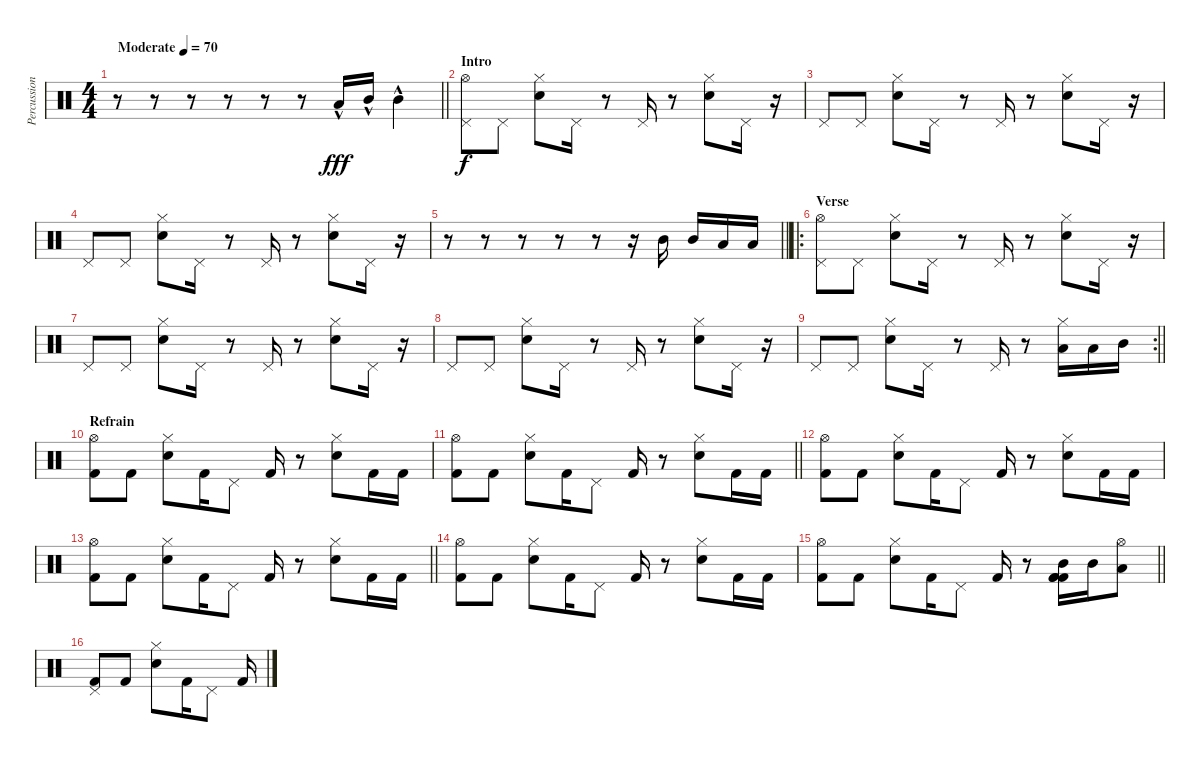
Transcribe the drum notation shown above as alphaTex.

\track ("Percussion" "Percussion") {instrument percussion}
\staff {score}
\articulation defaults
\ts (4 4)
\tempo (70 "Moderate")
\clef neutral
\barLineRight lightlight
\ks c
r.8{dy fff} r.8 r.8 r.8 r.8 r.8 "Low Tom (hit)"{hac}.16 "Mid Tom (hit)"{hac}.16 "Mid Tom (hit)"{hac}.4 |
\section ("" "Intro")
("Pedal Hi-Hat (hit)" "Hi-Hat (open)").8{dy f} "Pedal Hi-Hat (hit)".8 ("Hi-Hat (closed)" "Snare (hit) 2").8 "Pedal Hi-Hat (hit)".16 r.8 "Pedal Hi-Hat (hit)".16 r.8 ("Hi-Hat (closed)" "Snare (hit) 2").8 "Pedal Hi-Hat (hit)".16 r.16 |
"Pedal Hi-Hat (hit)".8 "Pedal Hi-Hat (hit)".8 ("Hi-Hat (closed)" "Snare (hit) 2").8 "Pedal Hi-Hat (hit)".16 r.8 "Pedal Hi-Hat (hit)".16 r.8 ("Hi-Hat (closed)" "Snare (hit) 2").8 "Pedal Hi-Hat (hit)".16 r.16 |
"Pedal Hi-Hat (hit)".8 "Pedal Hi-Hat (hit)".8 ("Hi-Hat (closed)" "Snare (hit) 2").8 "Pedal Hi-Hat (hit)".16 r.8 "Pedal Hi-Hat (hit)".16 r.8 ("Hi-Hat (closed)" "Snare (hit) 2").8 "Pedal Hi-Hat (hit)".16 r.16 |
\barLineRight lightlight
r.8 r.8 r.8 r.8 r.8 r.16 "Mid Tom (hit)".16 "Mid Tom (hit)".16 "Low Tom (hit)".16 "Low Tom (hit)".16 |
\ro
\section ("" "Verse")
("Pedal Hi-Hat (hit)" "Hi-Hat (open)").8 "Pedal Hi-Hat (hit)".8 ("Hi-Hat (closed)" "Snare (hit) 2").8 "Pedal Hi-Hat (hit)".16 r.8 "Pedal Hi-Hat (hit)".16 r.8 ("Hi-Hat (closed)" "Snare (hit) 2").8 "Pedal Hi-Hat (hit)".16 r.16 |
"Pedal Hi-Hat (hit)".8 "Pedal Hi-Hat (hit)".8 ("Hi-Hat (closed)" "Snare (hit) 2").8 "Pedal Hi-Hat (hit)".16 r.8 "Pedal Hi-Hat (hit)".16 r.8 ("Hi-Hat (closed)" "Snare (hit) 2").8 "Pedal Hi-Hat (hit)".16 r.16 |
"Pedal Hi-Hat (hit)".8 "Pedal Hi-Hat (hit)".8 ("Hi-Hat (closed)" "Snare (hit) 2").8 "Pedal Hi-Hat (hit)".16 r.8 "Pedal Hi-Hat (hit)".16 r.8 ("Hi-Hat (closed)" "Snare (hit) 2").8 "Pedal Hi-Hat (hit)".16 r.16 |
\rc 2
\barLineRight lightlight "Pedal Hi-Hat (hit)".8 "Pedal Hi-Hat (hit)".8
("Hi-Hat (closed)" "Snare (hit) 2").8 "Pedal Hi-Hat (hit)".16 r.8 "Pedal Hi-Hat (hit)".16 r.8 ("Hi-Hat (closed)" "Low Tom (hit)").16 "Low Tom (hit)".16 "Mid Tom (hit)".16 |
\section ("" "Refrain")
("Kick (hit) 2" "Hi-Hat (open)").8 "Kick (hit) 2".8 ("Hi-Hat (closed)" "Electric Snare (hit)").8 "Kick (hit) 2".16 "Pedal Hi-Hat (hit)".8 "Kick (hit) 2".16 r.8 ("Hi-Hat (closed)" "Electric Snare (hit)").8 "Kick (hit) 2".16 "Kick (hit) 2".16 |
\barLineRight lightlight
("Kick (hit) 2" "Hi-Hat (open)").8 "Kick (hit) 2".8 ("Hi-Hat (closed)" "Electric Snare (hit)").8 "Kick (hit) 2".16 "Pedal Hi-Hat (hit)".8 "Kick (hit) 2".16 r.8 ("Hi-Hat (closed)" "Electric Snare (hit)").8 "Kick (hit) 2".16 "Kick (hit) 2".16 |
("Kick (hit) 2" "Hi-Hat (open)").8 "Kick (hit) 2".8 ("Hi-Hat (closed)" "Electric Snare (hit)").8 "Kick (hit) 2".16 "Pedal Hi-Hat (hit)".8 "Kick (hit) 2".16 r.8 ("Hi-Hat (closed)" "Electric Snare (hit)").8 "Kick (hit) 2".16 "Kick (hit) 2".16 |
\barLineRight lightlight
("Kick (hit) 2" "Hi-Hat (open)").8 "Kick (hit) 2".8 ("Hi-Hat (closed)" "Electric Snare (hit)").8 "Kick (hit) 2".16 "Pedal Hi-Hat (hit)".8 "Kick (hit) 2".16 r.8 ("Hi-Hat (closed)" "Electric Snare (hit)").8 "Kick (hit) 2".16 "Kick (hit) 2".16 |
("Kick (hit) 2" "Hi-Hat (open)").8 "Kick (hit) 2".8 ("Hi-Hat (closed)" "Electric Snare (hit)").8 "Kick (hit) 2".16 "Pedal Hi-Hat (hit)".8 "Kick (hit) 2".16 r.8 ("Hi-Hat (closed)" "Electric Snare (hit)").8 "Kick (hit) 2".16 "Kick (hit) 2".16 |
\barLineRight lightlight
("Kick (hit) 2" "Hi-Hat (open)").8 "Kick (hit) 2".8 ("Hi-Hat (closed)" "Electric Snare (hit)").8 "Kick (hit) 2".16 "Pedal Hi-Hat (hit)".8 "Kick (hit) 2".16 r.8 ("Kick (hit) 2" "Kick (hit) 2" "Mid Tom (hit)" "Kick (hit) 2").16 "Mid Tom (hit)".16 ("Low Tom (hit)" "Hi-Hat (open)").8 |
("Kick (hit) 2" "Pedal Hi-Hat (hit)").8 "Kick (hit) 2".8 ("Hi-Hat (closed)" "Electric Snare (hit)").8 "Kick (hit) 2".16 "Pedal Hi-Hat (hit)".8 "Kick (hit) 2".16
